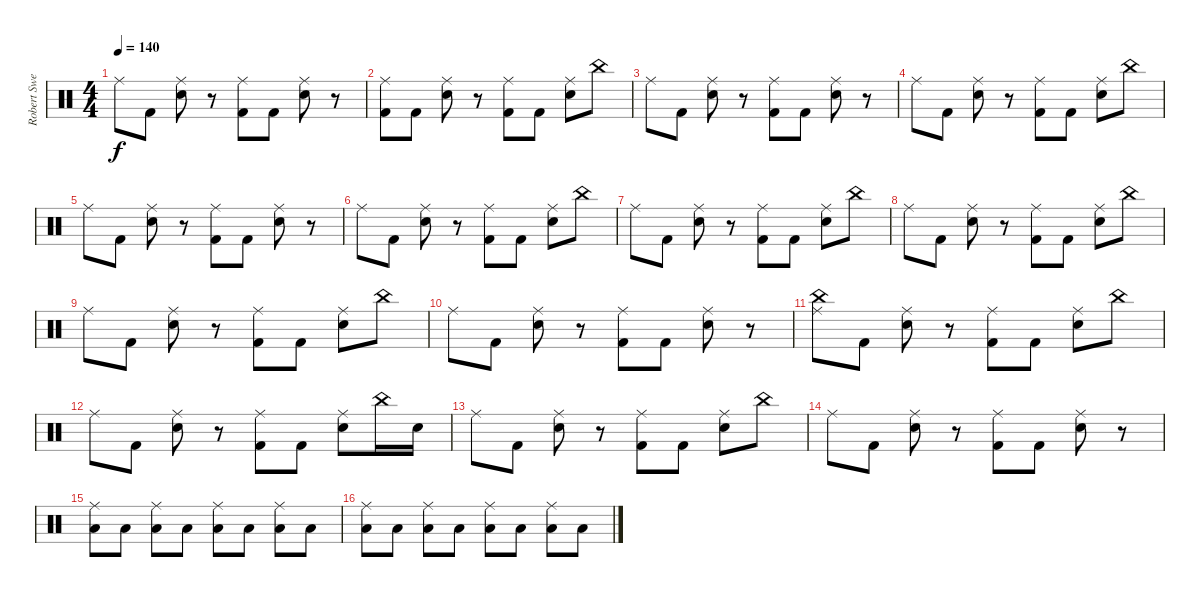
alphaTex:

\track ("Robert Sweet" "Robert Swe") {instrument percussion}
\staff {score}
\articulation defaults
\ts (4 4)
\tempo 140
\clef neutral
\ks c "Ride (middle)".8{dy f} "Kick (hit) 2".8
("Ride (middle)" "Electric Snare (hit)").8 r.8 ("Ride (middle)" "Kick (hit) 2").8 "Kick (hit) 2".8 ("Ride (middle)" "Electric Snare (hit)").8 r.8 |
("Ride (middle)" "Kick (hit) 2").8 "Kick (hit) 2".8 ("Ride (middle)" "Electric Snare (hit)").8 r.8 ("Ride (middle)" "Kick (hit) 2").8 "Kick (hit) 2".8 ("Ride (middle)" "Electric Snare (hit)").8 "China (hit)".8 |
"Ride (middle)".8 "Kick (hit) 2".8 ("Ride (middle)" "Electric Snare (hit)").8 r.8 ("Ride (middle)" "Kick (hit) 2").8 "Kick (hit) 2".8 ("Ride (middle)" "Electric Snare (hit)").8 r.8 |
"Ride (middle)".8 "Kick (hit) 2".8 ("Ride (middle)" "Electric Snare (hit)").8 r.8 ("Ride (middle)" "Kick (hit) 2").8 "Kick (hit) 2".8 ("Ride (middle)" "Electric Snare (hit)").8 "China (hit)".8 |
"Ride (middle)".8 "Kick (hit) 2".8 ("Ride (middle)" "Electric Snare (hit)").8 r.8 ("Ride (middle)" "Kick (hit) 2").8 "Kick (hit) 2".8 ("Ride (middle)" "Electric Snare (hit)").8 r.8 |
"Ride (middle)".8 "Kick (hit) 2".8 ("Ride (middle)" "Electric Snare (hit)").8 r.8 ("Ride (middle)" "Kick (hit) 2").8 "Kick (hit) 2".8 ("Ride (middle)" "Electric Snare (hit)").8 "China (hit)".8 |
"Ride (middle)".8 "Kick (hit) 2".8 ("Ride (middle)" "Electric Snare (hit)").8 r.8 ("Ride (middle)" "Kick (hit) 2").8 "Kick (hit) 2".8 ("Ride (middle)" "Electric Snare (hit)").8 "China (hit)".8 |
"Ride (middle)".8 "Kick (hit) 2".8 ("Ride (middle)" "Electric Snare (hit)").8 r.8 ("Ride (middle)" "Kick (hit) 2").8 "Kick (hit) 2".8 ("Ride (middle)" "Electric Snare (hit)").8 "China (hit)".8 |
"Ride (middle)".8 "Kick (hit) 2".8 ("Ride (middle)" "Electric Snare (hit)").8 r.8 ("Ride (middle)" "Kick (hit) 2").8 "Kick (hit) 2".8 ("Ride (middle)" "Electric Snare (hit)").8 "China (hit)".8 |
"Ride (middle)".8 "Kick (hit) 2".8 ("Ride (middle)" "Electric Snare (hit)").8 r.8 ("Ride (middle)" "Kick (hit) 2").8 "Kick (hit) 2".8 ("Ride (middle)" "Electric Snare (hit)").8 r.8 |
("Ride (middle)" "China (hit)").8 "Kick (hit) 2".8 ("Ride (middle)" "Electric Snare (hit)").8 r.8 ("Ride (middle)" "Kick (hit) 2").8 "Kick (hit) 2".8 ("Ride (middle)" "Electric Snare (hit)").8 "China (hit)".8 |
"Ride (middle)".8 "Kick (hit) 2".8 ("Ride (middle)" "Electric Snare (hit)").8 r.8 ("Ride (middle)" "Kick (hit) 2").8 "Kick (hit) 2".8 ("Ride (middle)" "Electric Snare (hit)").8 "China (hit)".16 "Electric Snare (hit)".16 |
"Ride (middle)".8 "Kick (hit) 2".8 ("Ride (middle)" "Electric Snare (hit)").8 r.8 ("Ride (middle)" "Kick (hit) 2").8 "Kick (hit) 2".8 ("Ride (middle)" "Electric Snare (hit)").8 "China (hit)".8 |
"Ride (middle)".8 "Kick (hit) 2".8 ("Ride (middle)" "Electric Snare (hit)").8 r.8 ("Ride (middle)" "Kick (hit) 2").8 "Kick (hit) 2".8 ("Ride (middle)" "Electric Snare (hit)").8 r.8 |
("Ride (middle)" "Low Floor Tom (hit)").8 "Low Floor Tom (hit)".8 ("Ride (middle)" "Low Floor Tom (hit)").8 "Low Floor Tom (hit)".8 ("Ride (middle)" "Low Floor Tom (hit)").8 "Low Floor Tom (hit)".8 ("Ride (middle)" "Low Floor Tom (hit)").8 "Low Floor Tom (hit)".8 |
("Ride (middle)" "Low Floor Tom (hit)").8 "Low Floor Tom (hit)".8 ("Ride (middle)" "Low Floor Tom (hit)").8 "Low Floor Tom (hit)".8 ("Ride (middle)" "Low Floor Tom (hit)").8 "Low Floor Tom (hit)".8 ("Ride (middle)" "Low Floor Tom (hit)").8 "Low Floor Tom (hit)".8
